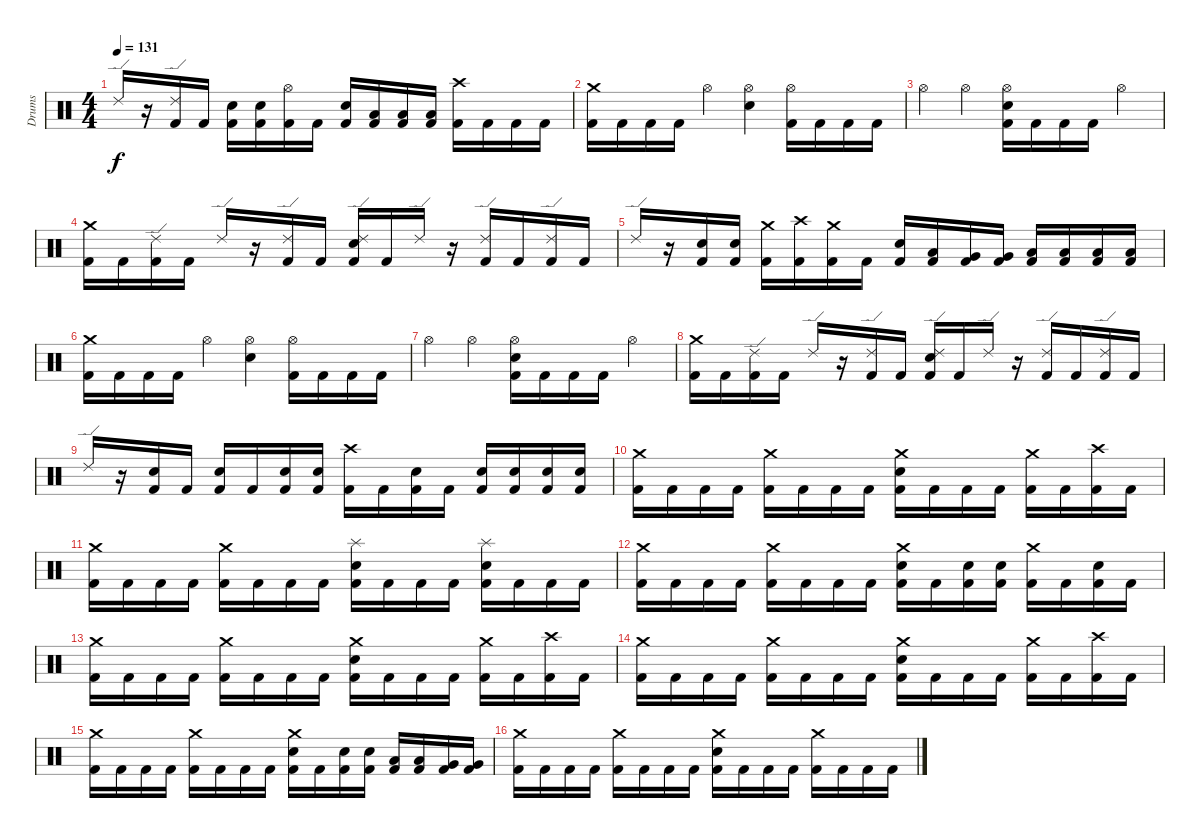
\track ("Drums" "Drums") {instrument percussion}
\staff {score}
\articulation defaults
\ts (4 4)
\tempo 131
\clef neutral
\ks c "Ride (edge) 2".16{dy f}
r.16 ("Ride (edge) 2" "Kick (hit) 2").16 "Kick (hit) 2".16 ("Electric Snare (hit)" "Kick (hit) 2").16 ("Electric Snare (hit)" "Kick (hit) 2").16 ("Hi-Hat (open)" "Kick (hit) 2").16 "Kick (hit) 2".16 ("Electric Snare (hit)" "Kick (hit) 2").16 ("Low Floor Tom (hit)" "Kick (hit) 2").16 ("Low Floor Tom (hit)" "Kick (hit) 2").16 ("Low Floor Tom (hit)" "Kick (hit) 2").16 ("Crash high (hit)" "Kick (hit) 2").16 "Kick (hit) 2".16 "Kick (hit) 2".16 "Kick (hit) 2".16 |
("Crash medium (hit)" "Kick (hit) 2").16 "Kick (hit) 2".16 "Kick (hit) 2".16 "Kick (hit) 2".16 "Hi-Hat (open)".4 ("Hi-Hat (open)" "Electric Snare (hit)").4 ("Hi-Hat (open)" "Kick (hit) 2").16 "Kick (hit) 2".16 "Kick (hit) 2".16 "Kick (hit) 2".16 |
"Hi-Hat (open)".4 "Hi-Hat (open)".4 ("Hi-Hat (open)" "Electric Snare (hit)" "Kick (hit) 2").16 "Kick (hit) 2".16 "Kick (hit) 2".16 "Kick (hit) 2".16 "Hi-Hat (open)".4 |
("Crash medium (hit)" "Kick (hit) 2").16 "Kick (hit) 2".16 ("Ride (edge) 2" "Kick (hit) 2").16 "Kick (hit) 2".16 "Ride (edge) 2".16 r.16 ("Ride (edge) 2" "Kick (hit) 2").16 "Kick (hit) 2".16 ("Ride (edge) 2" "Electric Snare (hit)" "Kick (hit) 2").16 "Kick (hit) 2".16 "Ride (edge) 2".16 r.16 ("Ride (edge) 2" "Kick (hit) 2").16 "Kick (hit) 2".16 ("Ride (edge) 2" "Kick (hit) 2").16 "Kick (hit) 2".16 |
"Ride (edge) 2".16 r.16 ("Electric Snare (hit)" "Kick (hit) 2").16 ("Electric Snare (hit)" "Kick (hit) 2").16 ("Crash medium (hit)" "Kick (hit) 2").16 ("Crash high (hit)" "Kick (hit) 2").16 ("Crash medium (hit)" "Kick (hit) 2").16 "Kick (hit) 2".16 ("Electric Snare (hit)" "Kick (hit) 2").16 ("Low Tom (hit)" "Kick (hit) 2").16 ("Very Low Tom (hit)" "Kick (hit) 2").16 ("Very Low Tom (hit)" "Kick (hit) 2").16 ("Low Floor Tom (hit)" "Kick (hit) 2").16 ("Low Floor Tom (hit)" "Kick (hit) 2").16 ("Low Floor Tom (hit)" "Kick (hit) 2").16 ("Low Floor Tom (hit)" "Kick (hit) 2").16 |
("Crash medium (hit)" "Kick (hit) 2").16 "Kick (hit) 2".16 "Kick (hit) 2".16 "Kick (hit) 2".16 "Hi-Hat (open)".4 ("Hi-Hat (open)" "Electric Snare (hit)").4 ("Hi-Hat (open)" "Kick (hit) 2").16 "Kick (hit) 2".16 "Kick (hit) 2".16 "Kick (hit) 2".16 |
"Hi-Hat (open)".4 "Hi-Hat (open)".4 ("Hi-Hat (open)" "Electric Snare (hit)" "Kick (hit) 2").16 "Kick (hit) 2".16 "Kick (hit) 2".16 "Kick (hit) 2".16 "Hi-Hat (open)".4 |
("Crash medium (hit)" "Kick (hit) 2").16 "Kick (hit) 2".16 ("Ride (edge) 2" "Kick (hit) 2").16 "Kick (hit) 2".16 "Ride (edge) 2".16 r.16 ("Ride (edge) 2" "Kick (hit) 2").16 "Kick (hit) 2".16 ("Ride (edge) 2" "Electric Snare (hit)" "Kick (hit) 2").16 "Kick (hit) 2".16 "Ride (edge) 2".16 r.16 ("Ride (edge) 2" "Kick (hit) 2").16 "Kick (hit) 2".16 ("Ride (edge) 2" "Kick (hit) 2").16 "Kick (hit) 2".16 |
"Ride (edge) 2".16 r.16 ("Electric Snare (hit)" "Kick (hit) 2").16 "Kick (hit) 2".16 ("Electric Snare (hit)" "Kick (hit) 2").16 "Kick (hit) 2".16 ("Electric Snare (hit)" "Kick (hit) 2").16 ("Electric Snare (hit)" "Kick (hit) 2").16 ("Crash high (hit)" "Kick (hit) 2").16 "Kick (hit) 2".16 ("Electric Snare (hit)" "Kick (hit) 2").16 "Kick (hit) 2".16 ("Electric Snare (hit)" "Kick (hit) 2").16 ("Electric Snare (hit)" "Kick (hit) 2").16 ("Electric Snare (hit)" "Kick (hit) 2").16 ("Electric Snare (hit)" "Kick (hit) 2").16 |
("Crash medium (hit)" "Kick (hit) 2").16 "Kick (hit) 2".16 "Kick (hit) 2".16 "Kick (hit) 2".16 ("Crash medium (hit)" "Kick (hit) 2").16 "Kick (hit) 2".16 "Kick (hit) 2".16 "Kick (hit) 2".16 ("Crash medium (hit)" "Electric Snare (hit)" "Kick (hit) 2").16 "Kick (hit) 2".16 "Kick (hit) 2".16 "Kick (hit) 2".16 ("Crash medium (hit)" "Kick (hit) 2").16 "Kick (hit) 2".16 ("Crash high (hit)" "Kick (hit) 2").16 "Kick (hit) 2".16 |
("Crash medium (hit)" "Kick (hit) 2").16 "Kick (hit) 2".16 "Kick (hit) 2".16 "Kick (hit) 2".16 ("Crash medium (hit)" "Kick (hit) 2").16 "Kick (hit) 2".16 "Kick (hit) 2".16 "Kick (hit) 2".16 ("Splash (hit)" "Electric Snare (hit)" "Kick (hit) 2").16 "Kick (hit) 2".16 "Kick (hit) 2".16 "Kick (hit) 2".16 ("Splash (hit)" "Electric Snare (hit)" "Kick (hit) 2").16 "Kick (hit) 2".16 "Kick (hit) 2".16 "Kick (hit) 2".16 |
("Crash medium (hit)" "Kick (hit) 2").16 "Kick (hit) 2".16 "Kick (hit) 2".16 "Kick (hit) 2".16 ("Crash medium (hit)" "Kick (hit) 2").16 "Kick (hit) 2".16 "Kick (hit) 2".16 "Kick (hit) 2".16 ("Crash medium (hit)" "Electric Snare (hit)" "Kick (hit) 2").16 "Kick (hit) 2".16 ("Electric Snare (hit)" "Kick (hit) 2").16 ("Electric Snare (hit)" "Kick (hit) 2").16 ("Crash medium (hit)" "Kick (hit) 2").16 "Kick (hit) 2".16 ("Electric Snare (hit)" "Kick (hit) 2").16 "Kick (hit) 2".16 |
("Crash medium (hit)" "Kick (hit) 2").16 "Kick (hit) 2".16 "Kick (hit) 2".16 "Kick (hit) 2".16 ("Crash medium (hit)" "Kick (hit) 2").16 "Kick (hit) 2".16 "Kick (hit) 2".16 "Kick (hit) 2".16 ("Crash medium (hit)" "Electric Snare (hit)" "Kick (hit) 2").16 "Kick (hit) 2".16 "Kick (hit) 2".16 "Kick (hit) 2".16 ("Crash medium (hit)" "Kick (hit) 2").16 "Kick (hit) 2".16 ("Crash high (hit)" "Kick (hit) 2").16 "Kick (hit) 2".16 |
("Crash medium (hit)" "Kick (hit) 2").16 "Kick (hit) 2".16 "Kick (hit) 2".16 "Kick (hit) 2".16 ("Crash medium (hit)" "Kick (hit) 2").16 "Kick (hit) 2".16 "Kick (hit) 2".16 "Kick (hit) 2".16 ("Crash medium (hit)" "Electric Snare (hit)" "Kick (hit) 2").16 "Kick (hit) 2".16 "Kick (hit) 2".16 "Kick (hit) 2".16 ("Crash medium (hit)" "Kick (hit) 2").16 "Kick (hit) 2".16 ("Crash high (hit)" "Kick (hit) 2").16 "Kick (hit) 2".16 |
("Crash medium (hit)" "Kick (hit) 2").16 "Kick (hit) 2".16 "Kick (hit) 2".16 "Kick (hit) 2".16 ("Crash medium (hit)" "Kick (hit) 2").16 "Kick (hit) 2".16 "Kick (hit) 2".16 "Kick (hit) 2".16 ("Crash medium (hit)" "Electric Snare (hit)" "Kick (hit) 2").16 "Kick (hit) 2".16 ("Electric Snare (hit)" "Kick (hit) 2").16 ("Electric Snare (hit)" "Kick (hit) 2").16 ("Low Tom (hit)" "Kick (hit) 2").16 ("Low Tom (hit)" "Kick (hit) 2").16 ("Very Low Tom (hit)" "Kick (hit) 2").16 ("Very Low Tom (hit)" "Kick (hit) 2").16 |
("Crash medium (hit)" "Kick (hit) 2").16 "Kick (hit) 2".16 "Kick (hit) 2".16 "Kick (hit) 2".16 ("Crash medium (hit)" "Kick (hit) 2").16 "Kick (hit) 2".16 "Kick (hit) 2".16 "Kick (hit) 2".16 ("Crash medium (hit)" "Electric Snare (hit)" "Kick (hit) 2").16 "Kick (hit) 2".16 "Kick (hit) 2".16 "Kick (hit) 2".16 ("Crash medium (hit)" "Kick (hit) 2").16 "Kick (hit) 2".16 "Kick (hit) 2".16 "Kick (hit) 2".16
